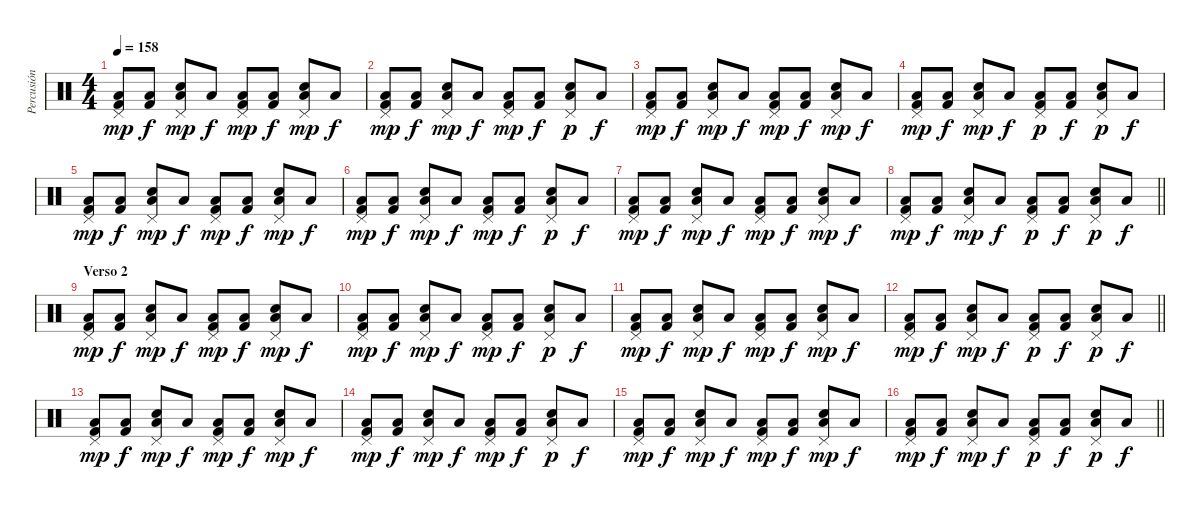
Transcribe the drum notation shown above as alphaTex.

\track ("Percusión" "Percusión") {instrument percussion}
\staff {score}
\articulation defaults
\ts (4 4)
\tempo 158
\clef neutral
\ks c
("Pedal Hi-Hat (hit)" "Low Floor Tom (hit)" "Kick (hit) 2").8{dy mp} ("Low Floor Tom (hit)" "Kick (hit) 2").8{dy f} ("Pedal Hi-Hat (hit)" "Low Floor Tom (hit)" "Electric Snare (hit)").8{dy mp} "Low Floor Tom (hit)".8{dy f} ("Pedal Hi-Hat (hit)" "Low Floor Tom (hit)" "Kick (hit) 2").8{dy mp} ("Low Floor Tom (hit)" "Kick (hit) 2").8{dy f} ("Pedal Hi-Hat (hit)" "Low Floor Tom (hit)" "Electric Snare (hit)").8{dy mp} "Low Floor Tom (hit)".8{dy f} |
("Pedal Hi-Hat (hit)" "Low Floor Tom (hit)" "Kick (hit) 2").8{dy mp} ("Low Floor Tom (hit)" "Kick (hit) 2").8{dy f} ("Pedal Hi-Hat (hit)" "Low Floor Tom (hit)" "Electric Snare (hit)").8{dy mp} "Low Floor Tom (hit)".8{dy f} ("Pedal Hi-Hat (hit)" "Low Floor Tom (hit)" "Kick (hit) 2").8{dy mp} ("Low Floor Tom (hit)" "Kick (hit) 2").8{dy f} ("Pedal Hi-Hat (hit)" "Low Floor Tom (hit)" "Electric Snare (hit)").8{dy p} "Low Floor Tom (hit)".8{dy f} |
("Pedal Hi-Hat (hit)" "Low Floor Tom (hit)" "Kick (hit) 2").8{dy mp} ("Low Floor Tom (hit)" "Kick (hit) 2").8{dy f} ("Pedal Hi-Hat (hit)" "Low Floor Tom (hit)" "Electric Snare (hit)").8{dy mp} "Low Floor Tom (hit)".8{dy f} ("Pedal Hi-Hat (hit)" "Low Floor Tom (hit)" "Kick (hit) 2").8{dy mp} ("Low Floor Tom (hit)" "Kick (hit) 2").8{dy f} ("Pedal Hi-Hat (hit)" "Low Floor Tom (hit)" "Electric Snare (hit)").8{dy mp} "Low Floor Tom (hit)".8{dy f} |
("Pedal Hi-Hat (hit)" "Low Floor Tom (hit)" "Kick (hit) 2").8{dy mp} ("Low Floor Tom (hit)" "Kick (hit) 2").8{dy f} ("Pedal Hi-Hat (hit)" "Low Floor Tom (hit)" "Electric Snare (hit)").8{dy mp} "Low Floor Tom (hit)".8{dy f} ("Pedal Hi-Hat (hit)" "Low Floor Tom (hit)" "Kick (hit) 2").8{dy p} ("Low Floor Tom (hit)" "Kick (hit) 2").8{dy f} ("Pedal Hi-Hat (hit)" "Low Floor Tom (hit)" "Electric Snare (hit)").8{dy p} "Low Floor Tom (hit)".8{dy f} |
("Pedal Hi-Hat (hit)" "Low Floor Tom (hit)" "Kick (hit) 2").8{dy mp} ("Low Floor Tom (hit)" "Kick (hit) 2").8{dy f} ("Pedal Hi-Hat (hit)" "Low Floor Tom (hit)" "Electric Snare (hit)").8{dy mp} "Low Floor Tom (hit)".8{dy f} ("Pedal Hi-Hat (hit)" "Low Floor Tom (hit)" "Kick (hit) 2").8{dy mp} ("Low Floor Tom (hit)" "Kick (hit) 2").8{dy f} ("Pedal Hi-Hat (hit)" "Low Floor Tom (hit)" "Electric Snare (hit)").8{dy mp} "Low Floor Tom (hit)".8{dy f} |
("Pedal Hi-Hat (hit)" "Low Floor Tom (hit)" "Kick (hit) 2").8{dy mp} ("Low Floor Tom (hit)" "Kick (hit) 2").8{dy f} ("Pedal Hi-Hat (hit)" "Low Floor Tom (hit)" "Electric Snare (hit)").8{dy mp} "Low Floor Tom (hit)".8{dy f} ("Pedal Hi-Hat (hit)" "Low Floor Tom (hit)" "Kick (hit) 2").8{dy mp} ("Low Floor Tom (hit)" "Kick (hit) 2").8{dy f} ("Pedal Hi-Hat (hit)" "Low Floor Tom (hit)" "Electric Snare (hit)").8{dy p} "Low Floor Tom (hit)".8{dy f} |
("Pedal Hi-Hat (hit)" "Low Floor Tom (hit)" "Kick (hit) 2").8{dy mp} ("Low Floor Tom (hit)" "Kick (hit) 2").8{dy f} ("Pedal Hi-Hat (hit)" "Low Floor Tom (hit)" "Electric Snare (hit)").8{dy mp} "Low Floor Tom (hit)".8{dy f} ("Pedal Hi-Hat (hit)" "Low Floor Tom (hit)" "Kick (hit) 2").8{dy mp} ("Low Floor Tom (hit)" "Kick (hit) 2").8{dy f} ("Pedal Hi-Hat (hit)" "Low Floor Tom (hit)" "Electric Snare (hit)").8{dy mp} "Low Floor Tom (hit)".8{dy f} |
\barLineRight lightlight
("Pedal Hi-Hat (hit)" "Low Floor Tom (hit)" "Kick (hit) 2").8{dy mp} ("Low Floor Tom (hit)" "Kick (hit) 2").8{dy f} ("Pedal Hi-Hat (hit)" "Low Floor Tom (hit)" "Electric Snare (hit)").8{dy mp} "Low Floor Tom (hit)".8{dy f} ("Pedal Hi-Hat (hit)" "Low Floor Tom (hit)" "Kick (hit) 2").8{dy p} ("Low Floor Tom (hit)" "Kick (hit) 2").8{dy f} ("Pedal Hi-Hat (hit)" "Low Floor Tom (hit)" "Electric Snare (hit)").8{dy p} "Low Floor Tom (hit)".8{dy f} |
\section ("" "Verso 2")
("Pedal Hi-Hat (hit)" "Low Floor Tom (hit)" "Kick (hit) 2").8{dy mp} ("Low Floor Tom (hit)" "Kick (hit) 2").8{dy f} ("Pedal Hi-Hat (hit)" "Low Floor Tom (hit)" "Electric Snare (hit)").8{dy mp} "Low Floor Tom (hit)".8{dy f} ("Pedal Hi-Hat (hit)" "Low Floor Tom (hit)" "Kick (hit) 2").8{dy mp} ("Low Floor Tom (hit)" "Kick (hit) 2").8{dy f} ("Pedal Hi-Hat (hit)" "Low Floor Tom (hit)" "Electric Snare (hit)").8{dy mp} "Low Floor Tom (hit)".8{dy f} |
("Pedal Hi-Hat (hit)" "Low Floor Tom (hit)" "Kick (hit) 2").8{dy mp} ("Low Floor Tom (hit)" "Kick (hit) 2").8{dy f} ("Pedal Hi-Hat (hit)" "Low Floor Tom (hit)" "Electric Snare (hit)").8{dy mp} "Low Floor Tom (hit)".8{dy f} ("Pedal Hi-Hat (hit)" "Low Floor Tom (hit)" "Kick (hit) 2").8{dy mp} ("Low Floor Tom (hit)" "Kick (hit) 2").8{dy f} ("Pedal Hi-Hat (hit)" "Low Floor Tom (hit)" "Electric Snare (hit)").8{dy p} "Low Floor Tom (hit)".8{dy f} |
("Pedal Hi-Hat (hit)" "Low Floor Tom (hit)" "Kick (hit) 2").8{dy mp} ("Low Floor Tom (hit)" "Kick (hit) 2").8{dy f} ("Pedal Hi-Hat (hit)" "Low Floor Tom (hit)" "Electric Snare (hit)").8{dy mp} "Low Floor Tom (hit)".8{dy f} ("Pedal Hi-Hat (hit)" "Low Floor Tom (hit)" "Kick (hit) 2").8{dy mp} ("Low Floor Tom (hit)" "Kick (hit) 2").8{dy f} ("Pedal Hi-Hat (hit)" "Low Floor Tom (hit)" "Electric Snare (hit)").8{dy mp} "Low Floor Tom (hit)".8{dy f} |
\barLineRight lightlight
("Pedal Hi-Hat (hit)" "Low Floor Tom (hit)" "Kick (hit) 2").8{dy mp} ("Low Floor Tom (hit)" "Kick (hit) 2").8{dy f} ("Pedal Hi-Hat (hit)" "Low Floor Tom (hit)" "Electric Snare (hit)").8{dy mp} "Low Floor Tom (hit)".8{dy f} ("Pedal Hi-Hat (hit)" "Low Floor Tom (hit)" "Kick (hit) 2").8{dy p} ("Low Floor Tom (hit)" "Kick (hit) 2").8{dy f} ("Pedal Hi-Hat (hit)" "Low Floor Tom (hit)" "Electric Snare (hit)").8{dy p} "Low Floor Tom (hit)".8{dy f} |
("Pedal Hi-Hat (hit)" "Low Floor Tom (hit)" "Kick (hit) 2").8{dy mp} ("Low Floor Tom (hit)" "Kick (hit) 2").8{dy f} ("Pedal Hi-Hat (hit)" "Low Floor Tom (hit)" "Electric Snare (hit)").8{dy mp} "Low Floor Tom (hit)".8{dy f} ("Pedal Hi-Hat (hit)" "Low Floor Tom (hit)" "Kick (hit) 2").8{dy mp} ("Low Floor Tom (hit)" "Kick (hit) 2").8{dy f} ("Pedal Hi-Hat (hit)" "Low Floor Tom (hit)" "Electric Snare (hit)").8{dy mp} "Low Floor Tom (hit)".8{dy f} |
("Pedal Hi-Hat (hit)" "Low Floor Tom (hit)" "Kick (hit) 2").8{dy mp} ("Low Floor Tom (hit)" "Kick (hit) 2").8{dy f} ("Pedal Hi-Hat (hit)" "Low Floor Tom (hit)" "Electric Snare (hit)").8{dy mp} "Low Floor Tom (hit)".8{dy f} ("Pedal Hi-Hat (hit)" "Low Floor Tom (hit)" "Kick (hit) 2").8{dy mp} ("Low Floor Tom (hit)" "Kick (hit) 2").8{dy f} ("Pedal Hi-Hat (hit)" "Low Floor Tom (hit)" "Electric Snare (hit)").8{dy p} "Low Floor Tom (hit)".8{dy f} |
("Pedal Hi-Hat (hit)" "Low Floor Tom (hit)" "Kick (hit) 2").8{dy mp} ("Low Floor Tom (hit)" "Kick (hit) 2").8{dy f} ("Pedal Hi-Hat (hit)" "Low Floor Tom (hit)" "Electric Snare (hit)").8{dy mp} "Low Floor Tom (hit)".8{dy f} ("Pedal Hi-Hat (hit)" "Low Floor Tom (hit)" "Kick (hit) 2").8{dy mp} ("Low Floor Tom (hit)" "Kick (hit) 2").8{dy f} ("Pedal Hi-Hat (hit)" "Low Floor Tom (hit)" "Electric Snare (hit)").8{dy mp} "Low Floor Tom (hit)".8{dy f} |
\barLineRight lightlight
("Pedal Hi-Hat (hit)" "Low Floor Tom (hit)" "Kick (hit) 2").8{dy mp} ("Low Floor Tom (hit)" "Kick (hit) 2").8{dy f} ("Pedal Hi-Hat (hit)" "Low Floor Tom (hit)" "Electric Snare (hit)").8{dy mp} "Low Floor Tom (hit)".8{dy f} ("Pedal Hi-Hat (hit)" "Low Floor Tom (hit)" "Kick (hit) 2").8{dy p} ("Low Floor Tom (hit)" "Kick (hit) 2").8{dy f} ("Pedal Hi-Hat (hit)" "Low Floor Tom (hit)" "Electric Snare (hit)").8{dy p} "Low Floor Tom (hit)".8{dy f}
